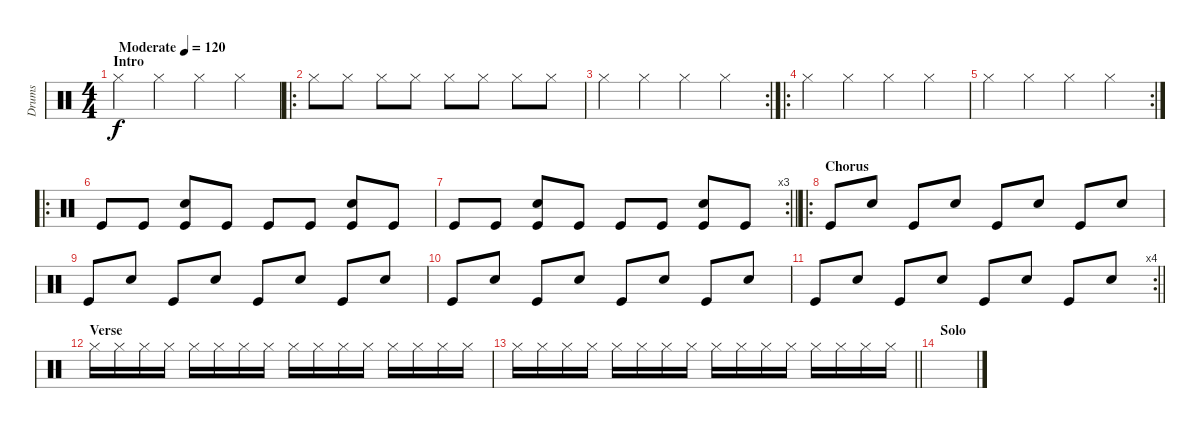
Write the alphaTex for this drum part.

\track ("Drums" "Drums") {instrument percussion}
\staff {score}
\articulation defaults
\ts (4 4)
\section ("" "Intro")
\tempo (120 "Moderate")
\clef neutral
\ks c "Hi-Hat (closed)".4{dy f} "Hi-Hat (closed)".4 "Hi-Hat (closed)".4 "Hi-Hat (closed)".4
|
\ro "Hi-Hat (closed)".8 "Hi-Hat (closed)".8 "Hi-Hat (closed)".8 "Hi-Hat (closed)".8 "Hi-Hat (closed)".8 "Hi-Hat (closed)".8 "Hi-Hat (closed)".8 "Hi-Hat (closed)".8
|
\rc 2 "Hi-Hat (closed)".4 "Hi-Hat (closed)".4 "Hi-Hat (closed)".4 "Hi-Hat (closed)".4
|
\ro "Hi-Hat (closed)".4 "Hi-Hat (closed)".4 "Hi-Hat (closed)".4 "Hi-Hat (closed)".4
|
\rc 2 "Hi-Hat (closed)".4 "Hi-Hat (closed)".4 "Hi-Hat (closed)".4 "Hi-Hat (closed)".4
|
\ro "Kick (hit)".8 "Kick (hit)".8
("Snare (hit) 2" "Kick (hit)").8 "Kick (hit)".8 "Kick (hit)".8 "Kick (hit)".8 ("Snare (hit) 2" "Kick (hit)").8 "Kick (hit)".8 |
\rc 3
\barLineRight lightlight "Kick (hit)".8 "Kick (hit)".8
("Snare (hit) 2" "Kick (hit)").8 "Kick (hit)".8 "Kick (hit)".8 "Kick (hit)".8 ("Snare (hit) 2" "Kick (hit)").8 "Kick (hit)".8 |
\ro
\section ("" "Chorus")
"Kick (hit)".8 "Snare (hit) 2".8 "Kick (hit)".8 "Snare (hit) 2".8 "Kick (hit)".8 "Snare (hit) 2".8 "Kick (hit)".8 "Snare (hit) 2".8 |
"Kick (hit)".8 "Snare (hit) 2".8 "Kick (hit)".8 "Snare (hit) 2".8 "Kick (hit)".8 "Snare (hit) 2".8 "Kick (hit)".8 "Snare (hit) 2".8 |
"Kick (hit)".8 "Snare (hit) 2".8 "Kick (hit)".8 "Snare (hit) 2".8 "Kick (hit)".8 "Snare (hit) 2".8 "Kick (hit)".8 "Snare (hit) 2".8 |
\rc 4
\barLineRight lightlight "Kick (hit)".8 "Snare (hit) 2".8 "Kick (hit)".8 "Snare (hit) 2".8 "Kick (hit)".8 "Snare (hit) 2".8 "Kick (hit)".8 "Snare (hit) 2".8
|
\section ("" "Verse")
"Hi-Hat (closed)".16 "Hi-Hat (closed)".16 "Hi-Hat (closed)".16 "Hi-Hat (closed)".16 "Hi-Hat (closed)".16 "Hi-Hat (closed)".16 "Hi-Hat (closed)".16 "Hi-Hat (closed)".16 "Hi-Hat (closed)".16 "Hi-Hat (closed)".16 "Hi-Hat (closed)".16 "Hi-Hat (closed)".16 "Hi-Hat (closed)".16 "Hi-Hat (closed)".16 "Hi-Hat (closed)".16 "Hi-Hat (closed)".16 |
\barLineRight lightlight "Hi-Hat (closed)".16 "Hi-Hat (closed)".16 "Hi-Hat (closed)".16 "Hi-Hat (closed)".16 "Hi-Hat (closed)".16 "Hi-Hat (closed)".16 "Hi-Hat (closed)".16 "Hi-Hat (closed)".16 "Hi-Hat (closed)".16 "Hi-Hat (closed)".16 "Hi-Hat (closed)".16 "Hi-Hat (closed)".16 "Hi-Hat (closed)".16 "Hi-Hat (closed)".16 "Hi-Hat (closed)".16 "Hi-Hat (closed)".16
|
\section ("" "Solo")
